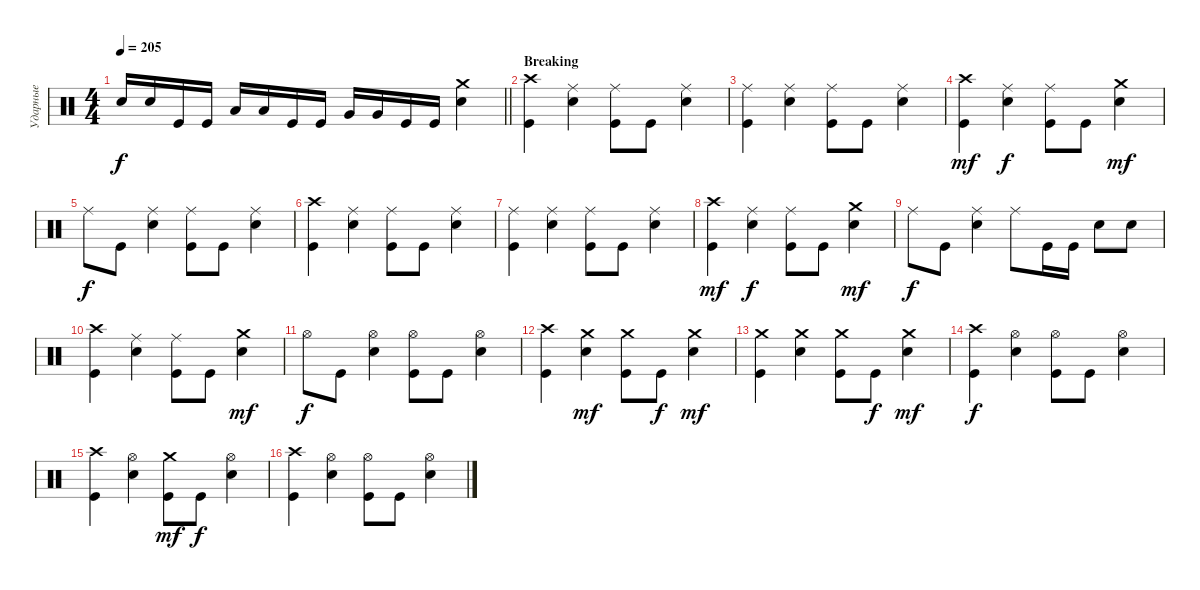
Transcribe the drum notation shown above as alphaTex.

\track ("Ударные" "Ударные") {instrument percussion}
\staff {score}
\articulation defaults
\ts (4 4)
\tempo 205
\clef neutral
\barLineRight lightlight
\ks aminor "Snare (hit) 2".16{dy f} "Snare (hit) 2".16 "Kick (hit)".16 "Kick (hit)".16 "Low Tom (hit)".16 "Low Tom (hit)".16 "Kick (hit)".16 "Kick (hit)".16 "Very Low Tom (hit)".16 "Very Low Tom (hit)".16 "Kick (hit)".16 "Kick (hit)".16
("Snare (hit) 2" "Crash medium (hit)").4 |
\section ("" "Breaking")
("Kick (hit)" "Crash high (hit)").4 ("Snare (hit) 2" "Ride (middle)").4 ("Kick (hit)" "Ride (middle)").8 "Kick (hit)".8 ("Snare (hit) 2" "Ride (middle)").4 |
("Kick (hit)" "Ride (middle)").4 ("Snare (hit) 2" "Ride (middle)").4 ("Kick (hit)" "Ride (middle)").8 "Kick (hit)".8 ("Snare (hit) 2" "Ride (middle)").4 |
("Kick (hit)" "Crash high (hit)").4{dy mf} ("Snare (hit) 2" "Ride (middle)").4{dy f} ("Kick (hit)" "Ride (middle)").8 "Kick (hit)".8 ("Snare (hit) 2" "Crash medium (hit)").4{dy mf} |
"Ride (middle)".8{dy f} "Kick (hit)".8 ("Snare (hit) 2" "Ride (middle)").4 ("Kick (hit)" "Ride (middle)").8 "Kick (hit)".8 ("Snare (hit) 2" "Ride (middle)").4 |
("Kick (hit)" "Crash high (hit)").4 ("Snare (hit) 2" "Ride (middle)").4 ("Kick (hit)" "Ride (middle)").8 "Kick (hit)".8 ("Snare (hit) 2" "Ride (middle)").4 |
("Kick (hit)" "Ride (middle)").4 ("Snare (hit) 2" "Ride (middle)").4 ("Kick (hit)" "Ride (middle)").8 "Kick (hit)".8 ("Snare (hit) 2" "Ride (middle)").4 |
("Kick (hit)" "Crash high (hit)").4{dy mf} ("Snare (hit) 2" "Ride (middle)").4{dy f} ("Kick (hit)" "Ride (middle)").8 "Kick (hit)".8 ("Snare (hit) 2" "Crash medium (hit)").4{dy mf} |
"Ride (middle)".8{dy f} "Kick (hit)".8 ("Snare (hit) 2" "Ride (middle)").4 "Ride (middle)".8 "Kick (hit)".16 "Kick (hit)".16 "Snare (hit) 2".8 "Snare (hit) 2".8 |
("Kick (hit)" "Crash high (hit)").4 ("Snare (hit) 2" "Ride (middle)").4 ("Kick (hit)" "Ride (middle)").8 "Kick (hit)".8 ("Snare (hit) 2" "Crash medium (hit)").4{dy mf} |
"Hi-Hat (open)".8{dy f} "Kick (hit)".8 ("Snare (hit) 2" "Hi-Hat (open)").4 ("Kick (hit)" "Hi-Hat (open)").8 "Kick (hit)".8 ("Snare (hit) 2" "Hi-Hat (open)").4 |
("Kick (hit)" "Crash high (hit)").4 ("Snare (hit) 2" "Crash medium (hit)").4{dy mf} ("Kick (hit)" "Crash medium (hit)").8 "Kick (hit)".8{dy f} ("Snare (hit) 2" "Crash medium (hit)").4{dy mf} |
("Crash medium (hit)" "Kick (hit)").4 ("Snare (hit) 2" "Crash medium (hit)").4 ("Kick (hit)" "Crash medium (hit)").8 "Kick (hit)".8{dy f} ("Snare (hit) 2" "Crash medium (hit)").4{dy mf} |
("Kick (hit)" "Crash high (hit)").4{dy f} ("Snare (hit) 2" "Hi-Hat (open)").4 ("Kick (hit)" "Hi-Hat (open)").8 "Kick (hit)".8 ("Snare (hit) 2" "Hi-Hat (open)").4 |
("Kick (hit)" "Crash high (hit)").4 ("Snare (hit) 2" "Hi-Hat (open)").4 ("Kick (hit)" "Crash medium (hit)").8{dy mf} "Kick (hit)".8{dy f} ("Snare (hit) 2" "Hi-Hat (open)").4 |
("Kick (hit)" "Crash high (hit)").4 ("Snare (hit) 2" "Hi-Hat (open)").4 ("Kick (hit)" "Hi-Hat (open)").8 "Kick (hit)".8 ("Snare (hit) 2" "Hi-Hat (open)").4
